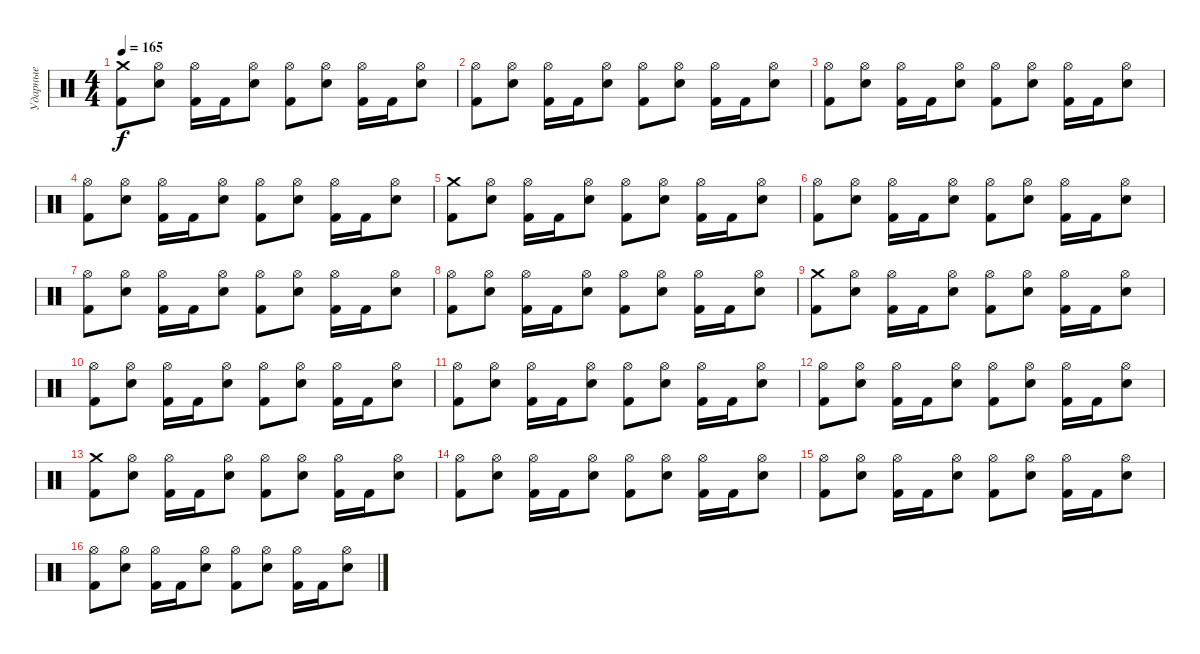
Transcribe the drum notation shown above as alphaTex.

\track ("Ударные" "Ударные") {instrument percussion}
\staff {score}
\articulation defaults
\ts (4 4)
\tempo 165
\clef neutral
\ks c
("Crash medium (hit)" "Kick (hit) 2").8{dy f} ("Hi-Hat (open)" "Electric Snare (hit)").8 ("Hi-Hat (open)" "Kick (hit) 2").16 "Kick (hit) 2".16 ("Hi-Hat (open)" "Electric Snare (hit)").8 ("Hi-Hat (open)" "Kick (hit) 2").8 ("Hi-Hat (open)" "Electric Snare (hit)").8 ("Hi-Hat (open)" "Kick (hit) 2").16 "Kick (hit) 2".16 ("Hi-Hat (open)" "Electric Snare (hit)").8 |
("Hi-Hat (open)" "Kick (hit) 2").8 ("Hi-Hat (open)" "Electric Snare (hit)").8 ("Hi-Hat (open)" "Kick (hit) 2").16 "Kick (hit) 2".16 ("Hi-Hat (open)" "Electric Snare (hit)").8 ("Hi-Hat (open)" "Kick (hit) 2").8 ("Hi-Hat (open)" "Electric Snare (hit)").8 ("Hi-Hat (open)" "Kick (hit) 2").16 "Kick (hit) 2".16 ("Hi-Hat (open)" "Electric Snare (hit)").8 |
("Hi-Hat (open)" "Kick (hit) 2").8 ("Hi-Hat (open)" "Electric Snare (hit)").8 ("Hi-Hat (open)" "Kick (hit) 2").16 "Kick (hit) 2".16 ("Hi-Hat (open)" "Electric Snare (hit)").8 ("Hi-Hat (open)" "Kick (hit) 2").8 ("Hi-Hat (open)" "Electric Snare (hit)").8 ("Hi-Hat (open)" "Kick (hit) 2").16 "Kick (hit) 2".16 ("Hi-Hat (open)" "Electric Snare (hit)").8 |
("Hi-Hat (open)" "Kick (hit) 2").8 ("Hi-Hat (open)" "Electric Snare (hit)").8 ("Hi-Hat (open)" "Kick (hit) 2").16 "Kick (hit) 2".16 ("Hi-Hat (open)" "Electric Snare (hit)").8 ("Hi-Hat (open)" "Kick (hit) 2").8 ("Hi-Hat (open)" "Electric Snare (hit)").8 ("Hi-Hat (open)" "Kick (hit) 2").16 "Kick (hit) 2".16 ("Hi-Hat (open)" "Electric Snare (hit)").8 |
("Crash medium (hit)" "Kick (hit) 2").8 ("Hi-Hat (open)" "Electric Snare (hit)").8 ("Hi-Hat (open)" "Kick (hit) 2").16 "Kick (hit) 2".16 ("Hi-Hat (open)" "Electric Snare (hit)").8 ("Hi-Hat (open)" "Kick (hit) 2").8 ("Hi-Hat (open)" "Electric Snare (hit)").8 ("Hi-Hat (open)" "Kick (hit) 2").16 "Kick (hit) 2".16 ("Hi-Hat (open)" "Electric Snare (hit)").8 |
("Hi-Hat (open)" "Kick (hit) 2").8 ("Hi-Hat (open)" "Electric Snare (hit)").8 ("Hi-Hat (open)" "Kick (hit) 2").16 "Kick (hit) 2".16 ("Hi-Hat (open)" "Electric Snare (hit)").8 ("Hi-Hat (open)" "Kick (hit) 2").8 ("Hi-Hat (open)" "Electric Snare (hit)").8 ("Hi-Hat (open)" "Kick (hit) 2").16 "Kick (hit) 2".16 ("Hi-Hat (open)" "Electric Snare (hit)").8 |
("Hi-Hat (open)" "Kick (hit) 2").8 ("Hi-Hat (open)" "Electric Snare (hit)").8 ("Hi-Hat (open)" "Kick (hit) 2").16 "Kick (hit) 2".16 ("Hi-Hat (open)" "Electric Snare (hit)").8 ("Hi-Hat (open)" "Kick (hit) 2").8 ("Hi-Hat (open)" "Electric Snare (hit)").8 ("Hi-Hat (open)" "Kick (hit) 2").16 "Kick (hit) 2".16 ("Hi-Hat (open)" "Electric Snare (hit)").8 |
("Hi-Hat (open)" "Kick (hit) 2").8 ("Hi-Hat (open)" "Electric Snare (hit)").8 ("Hi-Hat (open)" "Kick (hit) 2").16 "Kick (hit) 2".16 ("Hi-Hat (open)" "Electric Snare (hit)").8 ("Hi-Hat (open)" "Kick (hit) 2").8 ("Hi-Hat (open)" "Electric Snare (hit)").8 ("Hi-Hat (open)" "Kick (hit) 2").16 "Kick (hit) 2".16 ("Hi-Hat (open)" "Electric Snare (hit)").8 |
("Crash medium (hit)" "Kick (hit) 2").8 ("Hi-Hat (open)" "Electric Snare (hit)").8 ("Hi-Hat (open)" "Kick (hit) 2").16 "Kick (hit) 2".16 ("Hi-Hat (open)" "Electric Snare (hit)").8 ("Hi-Hat (open)" "Kick (hit) 2").8 ("Hi-Hat (open)" "Electric Snare (hit)").8 ("Hi-Hat (open)" "Kick (hit) 2").16 "Kick (hit) 2".16 ("Hi-Hat (open)" "Electric Snare (hit)").8 |
("Hi-Hat (open)" "Kick (hit) 2").8 ("Hi-Hat (open)" "Electric Snare (hit)").8 ("Hi-Hat (open)" "Kick (hit) 2").16 "Kick (hit) 2".16 ("Hi-Hat (open)" "Electric Snare (hit)").8 ("Hi-Hat (open)" "Kick (hit) 2").8 ("Hi-Hat (open)" "Electric Snare (hit)").8 ("Hi-Hat (open)" "Kick (hit) 2").16 "Kick (hit) 2".16 ("Hi-Hat (open)" "Electric Snare (hit)").8 |
("Hi-Hat (open)" "Kick (hit) 2").8 ("Hi-Hat (open)" "Electric Snare (hit)").8 ("Hi-Hat (open)" "Kick (hit) 2").16 "Kick (hit) 2".16 ("Hi-Hat (open)" "Electric Snare (hit)").8 ("Hi-Hat (open)" "Kick (hit) 2").8 ("Hi-Hat (open)" "Electric Snare (hit)").8 ("Hi-Hat (open)" "Kick (hit) 2").16 "Kick (hit) 2".16 ("Hi-Hat (open)" "Electric Snare (hit)").8 |
("Hi-Hat (open)" "Kick (hit) 2").8 ("Hi-Hat (open)" "Electric Snare (hit)").8 ("Hi-Hat (open)" "Kick (hit) 2").16 "Kick (hit) 2".16 ("Hi-Hat (open)" "Electric Snare (hit)").8 ("Hi-Hat (open)" "Kick (hit) 2").8 ("Hi-Hat (open)" "Electric Snare (hit)").8 ("Hi-Hat (open)" "Kick (hit) 2").16 "Kick (hit) 2".16 ("Hi-Hat (open)" "Electric Snare (hit)").8 |
("Crash medium (hit)" "Kick (hit) 2").8 ("Hi-Hat (open)" "Electric Snare (hit)").8 ("Hi-Hat (open)" "Kick (hit) 2").16 "Kick (hit) 2".16 ("Hi-Hat (open)" "Electric Snare (hit)").8 ("Hi-Hat (open)" "Kick (hit) 2").8 ("Hi-Hat (open)" "Electric Snare (hit)").8 ("Hi-Hat (open)" "Kick (hit) 2").16 "Kick (hit) 2".16 ("Hi-Hat (open)" "Electric Snare (hit)").8 |
("Hi-Hat (open)" "Kick (hit) 2").8 ("Hi-Hat (open)" "Electric Snare (hit)").8 ("Hi-Hat (open)" "Kick (hit) 2").16 "Kick (hit) 2".16 ("Hi-Hat (open)" "Electric Snare (hit)").8 ("Hi-Hat (open)" "Kick (hit) 2").8 ("Hi-Hat (open)" "Electric Snare (hit)").8 ("Hi-Hat (open)" "Kick (hit) 2").16 "Kick (hit) 2".16 ("Hi-Hat (open)" "Electric Snare (hit)").8 |
("Hi-Hat (open)" "Kick (hit) 2").8 ("Hi-Hat (open)" "Electric Snare (hit)").8 ("Hi-Hat (open)" "Kick (hit) 2").16 "Kick (hit) 2".16 ("Hi-Hat (open)" "Electric Snare (hit)").8 ("Hi-Hat (open)" "Kick (hit) 2").8 ("Hi-Hat (open)" "Electric Snare (hit)").8 ("Hi-Hat (open)" "Kick (hit) 2").16 "Kick (hit) 2".16 ("Hi-Hat (open)" "Electric Snare (hit)").8 |
("Hi-Hat (open)" "Kick (hit) 2").8 ("Hi-Hat (open)" "Electric Snare (hit)").8 ("Hi-Hat (open)" "Kick (hit) 2").16 "Kick (hit) 2".16 ("Hi-Hat (open)" "Electric Snare (hit)").8 ("Hi-Hat (open)" "Kick (hit) 2").8 ("Hi-Hat (open)" "Electric Snare (hit)").8 ("Hi-Hat (open)" "Kick (hit) 2").16 "Kick (hit) 2".16 ("Hi-Hat (open)" "Electric Snare (hit)").8
